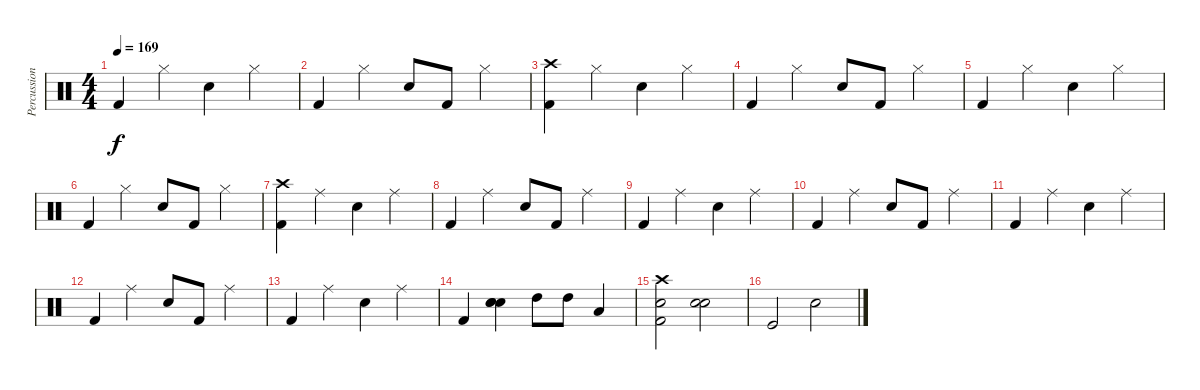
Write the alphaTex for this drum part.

\track ("Percussion" "Percussion") {instrument percussion}
\staff {score}
\articulation defaults
\ts (4 4)
\tempo 169
\clef neutral
\ks c "Kick (hit) 2".4{dy f} "Hi-Hat (closed)".4 "Snare (hit) 2".4 "Hi-Hat (closed)".4
|
"Kick (hit) 2".4 "Hi-Hat (closed)".4 "Snare (hit) 2".8 "Kick (hit) 2".8 "Hi-Hat (closed)".4 |
("Crash high (hit)" "Kick (hit) 2").4 "Hi-Hat (closed)".4 "Snare (hit) 2".4 "Hi-Hat (closed)".4 |
"Kick (hit) 2".4 "Hi-Hat (closed)".4 "Snare (hit) 2".8 "Kick (hit) 2".8 "Hi-Hat (closed)".4 |
"Kick (hit) 2".4 "Hi-Hat (closed)".4 "Snare (hit) 2".4 "Hi-Hat (closed)".4 |
"Kick (hit) 2".4 "Hi-Hat (closed)".4 "Snare (hit) 2".8 "Kick (hit) 2".8 "Hi-Hat (closed)".4 |
("Crash high (hit)" "Kick (hit) 2").4 "Ride (middle)".4 "Snare (hit) 2".4 "Ride (middle)".4 |
"Kick (hit) 2".4 "Ride (middle)".4 "Snare (hit) 2".8 "Kick (hit) 2".8 "Ride (middle)".4 |
"Kick (hit) 2".4 "Ride (middle)".4 "Snare (hit) 2".4 "Ride (middle)".4 |
"Kick (hit) 2".4 "Ride (middle)".4 "Snare (hit) 2".8 "Kick (hit) 2".8 "Ride (middle)".4 |
"Kick (hit) 2".4 "Ride (middle)".4 "Snare (hit) 2".4 "Ride (middle)".4 |
"Kick (hit) 2".4 "Ride (middle)".4 "Snare (hit) 2".8 "Kick (hit) 2".8 "Ride (middle)".4 |
"Kick (hit) 2".4 "Ride (middle)".4 "Snare (hit) 2".4 "Ride (middle)".4 |
"Kick (hit) 2".4 ("Snare (hit) 2" "Snare (hit) 2" "Snare (hit) 2").4 "High Tom (hit)".8 "High Tom (hit)".8 "Low Tom (hit)".4 |
("Snare (hit) 2" "Crash high (hit)" "Kick (hit) 2").2 ("Snare (hit) 2" "Snare (hit) 2").2 |
"Kick (hit)".2 "Snare (hit) 2".2
